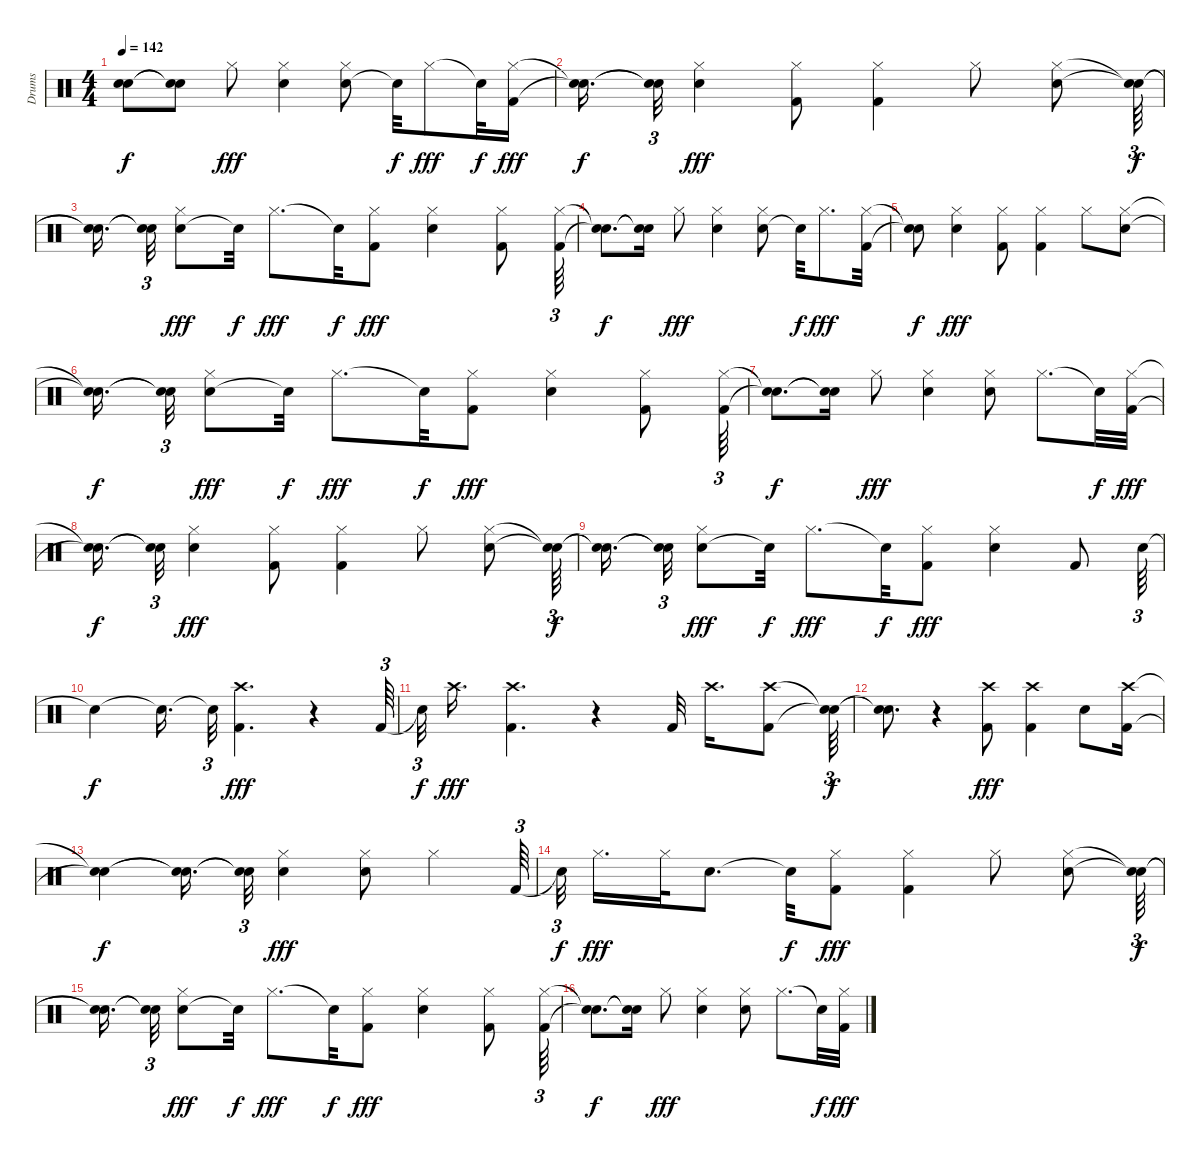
\track ("Drums" "Drums") {instrument percussion}
\staff {score}
\articulation defaults
\ts (4 4)
\tempo 142
\clef neutral
\ks c
("Snare (hit)"{t} "Snare (hit)"{t}).8{dy f} ("Snare (hit)"{t} "Snare (hit)"{t}).8 "Hi-Hat (closed)".8{dy fff} ("Snare (hit) 2" "Hi-Hat (closed)").4 ("Snare (hit) 2" "Hi-Hat (closed)").8 "Snare (hit)"{t}.32{dy f} "Hi-Hat (closed)".8{dy fff} "Snare (hit)"{t}.32{dy f} ("Hi-Hat (closed)" "Kick (hit) 2").16{dy fff} |
("Snare (hit)"{t} "Snare (hit)"{t}).16{d dy f} ("Snare (hit)"{t} "Snare (hit)"{t}).32{tu (3 2)} ("Electric Snare (hit)" "Hi-Hat (closed)").4{dy fff} ("Kick (hit) 2" "Hi-Hat (closed)").8 ("Hi-Hat (closed)" "Kick (hit) 2").4 "Hi-Hat (closed)".8 ("Snare (hit) 2" "Hi-Hat (closed)").8 ("Snare (hit)"{t} "Snare (hit)"{t}).64{tu (3 2) dy f} |
("Snare (hit)"{t} "Snare (hit)"{t}).16{d} ("Snare (hit)"{t} "Snare (hit)"{t}).32{tu (3 2)} ("Snare (hit) 2" "Hi-Hat (closed)").8{dy fff} "Snare (hit)"{t}.32{dy f} "Hi-Hat (closed)".8{d dy fff} "Snare (hit)"{t}.32{dy f} ("Hi-Hat (closed)" "Kick (hit) 2").8{dy fff} ("Electric Snare (hit)" "Hi-Hat (closed)").4 ("Kick (hit) 2" "Hi-Hat (closed)").8 ("Kick (hit) 2" "Hi-Hat (closed)").64{tu (3 2)} |
("Snare (hit)"{t} "Snare (hit)"{t}).8{d dy f} ("Snare (hit)"{t} "Snare (hit)"{t}).16 "Hi-Hat (closed)".8{dy fff} ("Snare (hit) 2" "Hi-Hat (closed)").4 ("Snare (hit) 2" "Hi-Hat (closed)").8 "Snare (hit)"{t}.32{dy f} "Hi-Hat (closed)".8{d dy fff} ("Hi-Hat (closed)" "Kick (hit) 2").32 |
("Snare (hit)"{t} "Snare (hit)"{t}).8{dy f} ("Electric Snare (hit)" "Hi-Hat (closed)").4{dy fff} ("Hi-Hat (closed)" "Kick (hit) 2").8 ("Hi-Hat (closed)" "Kick (hit) 2").4 "Hi-Hat (closed)".8 ("Snare (hit) 2" "Hi-Hat (closed)").8 |
("Snare (hit)"{t} "Snare (hit)"{t}).16{d dy f} ("Snare (hit)"{t} "Snare (hit)"{t}).32{tu (3 2)} ("Snare (hit) 2" "Hi-Hat (closed)").8{dy fff} "Snare (hit)"{t}.32{dy f} "Hi-Hat (closed)".8{d dy fff} "Snare (hit)"{t}.32{dy f} ("Hi-Hat (closed)" "Kick (hit) 2").8{dy fff} ("Electric Snare (hit)" "Hi-Hat (closed)").4 ("Hi-Hat (closed)" "Kick (hit) 2").8 ("Kick (hit) 2" "Hi-Hat (closed)").64{tu (3 2)} |
("Snare (hit)"{t} "Snare (hit)"{t}).8{d dy f} ("Snare (hit)"{t} "Snare (hit)"{t}).16 "Hi-Hat (closed)".8{dy fff} ("Snare (hit) 2" "Hi-Hat (closed)").4 ("Snare (hit) 2" "Hi-Hat (closed)").8 "Hi-Hat (closed)".8{d} "Snare (hit)"{t}.32{dy f} ("Hi-Hat (closed)" "Kick (hit) 2").32{dy fff} |
("Snare (hit)"{t} "Snare (hit)"{t}).16{d dy f} ("Snare (hit)"{t} "Snare (hit)"{t}).32{tu (3 2)} ("Electric Snare (hit)" "Hi-Hat (closed)").4{dy fff} ("Kick (hit) 2" "Hi-Hat (closed)").8 ("Kick (hit) 2" "Hi-Hat (closed)").4 "Hi-Hat (closed)".8 ("Snare (hit) 2" "Hi-Hat (closed)").8 ("Snare (hit)"{t} "Snare (hit)"{t}).64{tu (3 2) dy f} |
("Snare (hit)"{t} "Snare (hit)"{t}).16{d} ("Snare (hit)"{t} "Snare (hit)"{t}).32{tu (3 2)} ("Snare (hit) 2" "Hi-Hat (closed)").8{dy fff} "Snare (hit)"{t}.32{dy f} "Hi-Hat (closed)".8{d dy fff} "Snare (hit)"{t}.32{dy f} ("Hi-Hat (closed)" "Kick (hit) 2").8{dy fff} ("Electric Snare (hit)" "Hi-Hat (closed)").4 "Kick (hit) 2".8 "Snare (hit) 2".64{tu (3 2)} |
"Snare (hit)"{t}.4{dy f} "Snare (hit)"{t}.16{d} "Snare (hit)"{t}.32{tu (3 2)} ("Crash high (hit)" "Kick (hit) 2").4{d dy fff} r.4 "Kick (hit) 2".64{tu (3 2)} |
"Snare (hit)"{t}.32{tu (3 2) dy f} "Crash high (hit)".16{d dy fff} ("Kick (hit) 2" "Crash high (hit)").4{d} r.4 "Kick (hit) 2".32 "Crash high (hit)".16{d} ("Kick (hit) 2" "Crash high (hit)").8 ("Snare (hit)"{t} "Snare (hit)"{t}).64{tu (3 2) dy f} |
("Snare (hit)"{t} "Snare (hit)"{t}).8{d} r.4 ("Kick (hit) 2" "Crash high (hit)").8{dy fff} ("Crash high (hit)" "Kick (hit) 2").4 "Snare (hit) 2".8 ("Crash high (hit)" "Kick (hit) 2").16 |
("Snare (hit)"{t} "Snare (hit)"{t}).4{dy f} ("Snare (hit)"{t} "Snare (hit)"{t}).16{d} ("Snare (hit)"{t} "Snare (hit)"{t}).32{tu (3 2)} ("Hi-Hat (closed)" "Snare (hit) 2").4{dy fff} ("Hi-Hat (closed)" "Snare (hit) 2").8 "Hi-Hat (closed)".4 "Kick (hit) 2".64{tu (3 2)} |
"Snare (hit)"{t}.32{tu (3 2) dy f} "Hi-Hat (closed)".16{d dy fff} "Hi-Hat (closed)".32 "Snare (hit) 2".8{d} "Snare (hit)"{t}.32{dy f} ("Kick (hit) 2" "Hi-Hat (closed)").8{dy fff} ("Hi-Hat (closed)" "Kick (hit) 2").4 "Hi-Hat (closed)".8 ("Snare (hit) 2" "Hi-Hat (closed)").8 ("Snare (hit)"{t} "Snare (hit)"{t}).64{tu (3 2) dy f} |
("Snare (hit)"{t} "Snare (hit)"{t}).16{d} ("Snare (hit)"{t} "Snare (hit)"{t}).32{tu (3 2)} ("Snare (hit) 2" "Hi-Hat (closed)").8{dy fff} "Snare (hit)"{t}.32{dy f} "Hi-Hat (closed)".8{d dy fff} "Snare (hit)"{t}.32{dy f} ("Hi-Hat (closed)" "Kick (hit) 2").8{dy fff} ("Electric Snare (hit)" "Hi-Hat (closed)").4 ("Hi-Hat (closed)" "Kick (hit) 2").8 ("Kick (hit) 2" "Hi-Hat (closed)").64{tu (3 2)} |
("Snare (hit)"{t} "Snare (hit)"{t}).8{d dy f} ("Snare (hit)"{t} "Snare (hit)"{t}).16 "Hi-Hat (closed)".8{dy fff} ("Snare (hit) 2" "Hi-Hat (closed)").4 ("Snare (hit) 2" "Hi-Hat (closed)").8 "Hi-Hat (closed)".8{d} "Snare (hit)"{t}.32{dy f} ("Hi-Hat (closed)" "Kick (hit) 2").32{dy fff}
